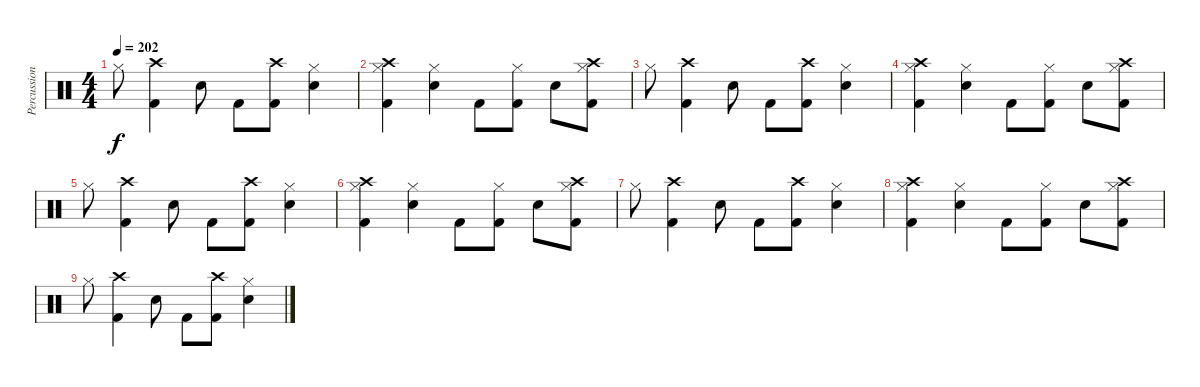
\track ("Percussioni" "Percussion") {instrument percussion}
\staff {score}
\articulation defaults
\ts (4 4)
\tempo 202
\clef neutral
\ks c "Hi-Hat (closed)".8{dy f}
("Crash high (hit)" "Kick (hit) 2").4 "Snare (hit) 2".8 "Kick (hit) 2".8 ("Crash high (hit)" "Kick (hit) 2").8 ("Hi-Hat (closed)" "Snare (hit) 2").4 |
("Hi-Hat (closed)" "Crash high (hit)" "Kick (hit) 2").4 ("Hi-Hat (closed)" "Snare (hit) 2").4 "Kick (hit) 2".8 ("Hi-Hat (closed)" "Kick (hit) 2").8 "Snare (hit) 2".8 ("Hi-Hat (closed)" "Crash high (hit)" "Kick (hit) 2").8 |
"Hi-Hat (closed)".8 ("Crash high (hit)" "Kick (hit) 2").4 "Snare (hit) 2".8 "Kick (hit) 2".8 ("Crash high (hit)" "Kick (hit) 2").8 ("Hi-Hat (closed)" "Snare (hit) 2").4 |
("Hi-Hat (closed)" "Crash high (hit)" "Kick (hit) 2").4 ("Hi-Hat (closed)" "Snare (hit) 2").4 "Kick (hit) 2".8 ("Hi-Hat (closed)" "Kick (hit) 2").8 "Snare (hit) 2".8 ("Hi-Hat (closed)" "Crash high (hit)" "Kick (hit) 2").8 |
"Hi-Hat (closed)".8 ("Crash high (hit)" "Kick (hit) 2").4 "Snare (hit) 2".8 "Kick (hit) 2".8 ("Crash high (hit)" "Kick (hit) 2").8 ("Hi-Hat (closed)" "Snare (hit) 2").4 |
("Hi-Hat (closed)" "Crash high (hit)" "Kick (hit) 2").4 ("Hi-Hat (closed)" "Snare (hit) 2").4 "Kick (hit) 2".8 ("Hi-Hat (closed)" "Kick (hit) 2").8 "Snare (hit) 2".8 ("Hi-Hat (closed)" "Crash high (hit)" "Kick (hit) 2").8 |
"Hi-Hat (closed)".8 ("Crash high (hit)" "Kick (hit) 2").4 "Snare (hit) 2".8 "Kick (hit) 2".8 ("Crash high (hit)" "Kick (hit) 2").8 ("Hi-Hat (closed)" "Snare (hit) 2").4 |
("Hi-Hat (closed)" "Crash high (hit)" "Kick (hit) 2").4 ("Hi-Hat (closed)" "Snare (hit) 2").4 "Kick (hit) 2".8 ("Hi-Hat (closed)" "Kick (hit) 2").8 "Snare (hit) 2".8 ("Hi-Hat (closed)" "Crash high (hit)" "Kick (hit) 2").8 |
"Hi-Hat (closed)".8 ("Crash high (hit)" "Kick (hit) 2").4 "Snare (hit) 2".8 "Kick (hit) 2".8 ("Crash high (hit)" "Kick (hit) 2").8 ("Hi-Hat (closed)" "Snare (hit) 2").4
